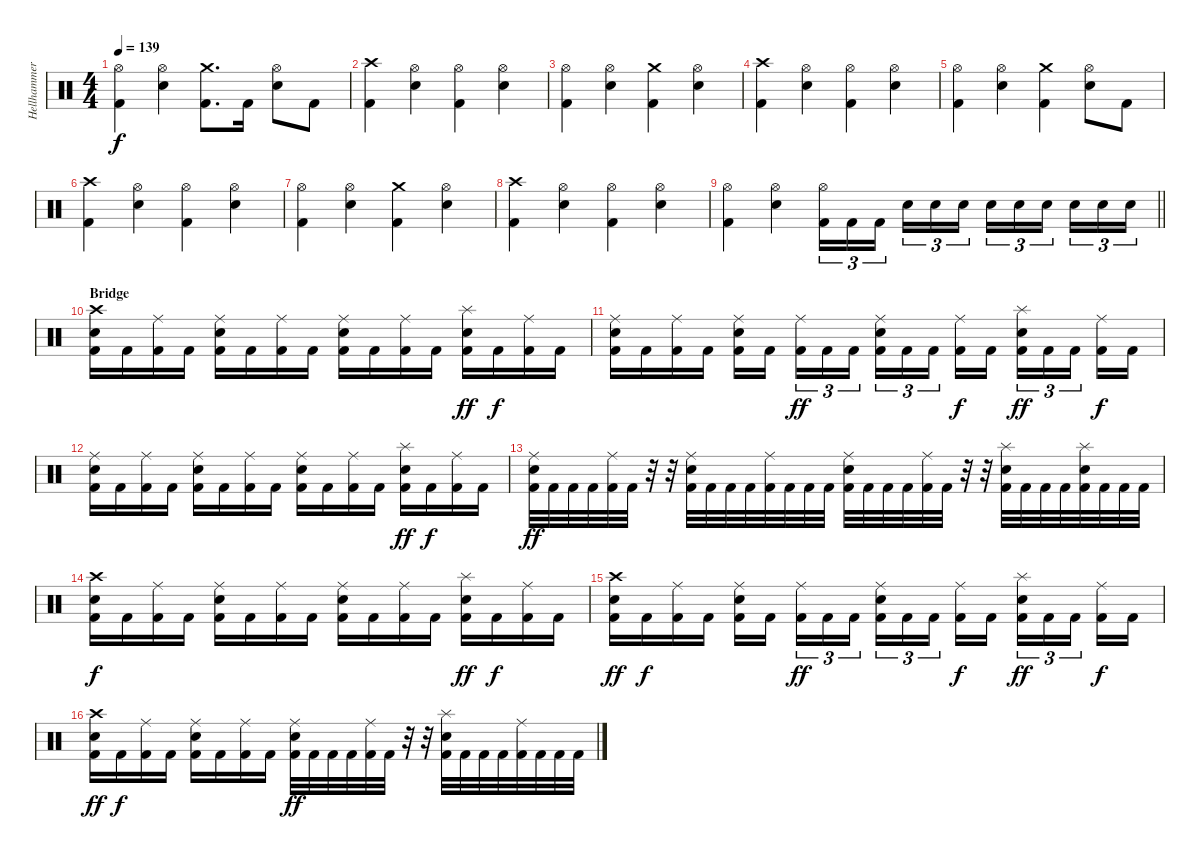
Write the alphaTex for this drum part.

\track ("Hellhammer" "Hellhammer") {instrument percussion}
\staff {score}
\articulation defaults
\ts (4 4)
\tempo 139
\clef neutral
\ks c
("Hi-Hat (open)" "Kick (hit) 2").4{dy f} ("Hi-Hat (open)" "Snare (hit) 2").4 ("Crash medium (hit)" "Kick (hit) 2").8{d} "Kick (hit) 2".16 ("Hi-Hat (open)" "Snare (hit) 2").8 "Kick (hit) 2".8 |
("Crash high (hit)" "Kick (hit) 2").4 ("Hi-Hat (open)" "Snare (hit) 2").4 ("Hi-Hat (open)" "Kick (hit) 2").4 ("Hi-Hat (open)" "Snare (hit) 2").4 |
("Hi-Hat (open)" "Kick (hit) 2").4 ("Hi-Hat (open)" "Snare (hit) 2").4 ("Crash medium (hit)" "Kick (hit) 2").4 ("Hi-Hat (open)" "Snare (hit) 2").4 |
("Crash high (hit)" "Kick (hit) 2").4 ("Hi-Hat (open)" "Snare (hit) 2").4 ("Hi-Hat (open)" "Kick (hit) 2").4 ("Hi-Hat (open)" "Snare (hit) 2").4 |
("Hi-Hat (open)" "Kick (hit) 2").4 ("Hi-Hat (open)" "Snare (hit) 2").4 ("Crash medium (hit)" "Kick (hit) 2").4 ("Hi-Hat (open)" "Snare (hit) 2").8 "Kick (hit) 2".8 |
("Crash high (hit)" "Kick (hit) 2").4 ("Hi-Hat (open)" "Snare (hit) 2").4 ("Hi-Hat (open)" "Kick (hit) 2").4 ("Hi-Hat (open)" "Snare (hit) 2").4 |
("Hi-Hat (open)" "Kick (hit) 2").4 ("Hi-Hat (open)" "Snare (hit) 2").4 ("Crash medium (hit)" "Kick (hit) 2").4 ("Hi-Hat (open)" "Snare (hit) 2").4 |
("Crash high (hit)" "Kick (hit) 2").4 ("Hi-Hat (open)" "Snare (hit) 2").4 ("Hi-Hat (open)" "Kick (hit) 2").4 ("Hi-Hat (open)" "Snare (hit) 2").4 |
\barLineRight lightlight
("Hi-Hat (open)" "Kick (hit) 2").4 ("Hi-Hat (open)" "Snare (hit) 2").4 ("Hi-Hat (open)" "Kick (hit) 2").16{tu (3 2)} "Kick (hit) 2".16{tu (3 2)} "Kick (hit) 2".16{tu (3 2) beam splitsecondary} "Snare (hit) 2".16{tu (3 2)} "Snare (hit) 2".16{tu (3 2)} "Snare (hit) 2".16{tu (3 2)} "Snare (hit) 2".16{tu (3 2)} "Snare (hit) 2".16{tu (3 2)} "Snare (hit) 2".16{tu (3 2) beam splitsecondary} "Snare (hit) 2".16{tu (3 2)} "Snare (hit) 2".16{tu (3 2)} "Snare (hit) 2".16{tu (3 2)} |
\section ("" "Bridge")
("Crash high (hit)" "Snare (hit) 2" "Kick (hit) 2").16 "Kick (hit) 2".16 ("Ride (middle)" "Kick (hit) 2").16 "Kick (hit) 2".16 ("Ride (middle)" "Snare (hit) 2" "Kick (hit) 2").16 "Kick (hit) 2".16 ("Ride (middle)" "Kick (hit) 2").16 "Kick (hit) 2".16 ("Ride (middle)" "Snare (hit) 2" "Kick (hit) 2").16 "Kick (hit) 2".16 ("Ride (middle)" "Kick (hit) 2").16 "Kick (hit) 2".16 ("Splash (hit)" "Snare (hit) 2" "Kick (hit) 2").16{dy ff} "Kick (hit) 2".16{dy f} ("Ride (middle)" "Kick (hit) 2").16 "Kick (hit) 2".16 |
("Ride (middle)" "Snare (hit) 2" "Kick (hit) 2").16 "Kick (hit) 2".16 ("Ride (middle)" "Kick (hit) 2").16 "Kick (hit) 2".16 ("Ride (middle)" "Snare (hit) 2" "Kick (hit) 2").16 "Kick (hit) 2".16{beam splitsecondary} ("Ride (middle)" "Kick (hit) 2").16{tu (3 2) dy ff} "Kick (hit) 2".16{tu (3 2)} "Kick (hit) 2".16{tu (3 2)} ("Ride (middle)" "Snare (hit) 2" "Kick (hit) 2").16{tu (3 2)} "Kick (hit) 2".16{tu (3 2)} "Kick (hit) 2".16{tu (3 2) beam splitsecondary} ("Ride (middle)" "Kick (hit) 2").16{dy f} "Kick (hit) 2".16 ("Splash (hit)" "Snare (hit) 2" "Kick (hit) 2").16{tu (3 2) dy ff} "Kick (hit) 2".16{tu (3 2)} "Kick (hit) 2".16{tu (3 2) beam splitsecondary} ("Ride (middle)" "Kick (hit) 2").16{dy f} "Kick (hit) 2".16 |
("Ride (middle)" "Snare (hit) 2" "Kick (hit) 2").16 "Kick (hit) 2".16 ("Ride (middle)" "Kick (hit) 2").16 "Kick (hit) 2".16 ("Ride (middle)" "Snare (hit) 2" "Kick (hit) 2").16 "Kick (hit) 2".16 ("Ride (middle)" "Kick (hit) 2").16 "Kick (hit) 2".16 ("Ride (middle)" "Snare (hit) 2" "Kick (hit) 2").16 "Kick (hit) 2".16 ("Ride (middle)" "Kick (hit) 2").16 "Kick (hit) 2".16 ("Splash (hit)" "Snare (hit) 2" "Kick (hit) 2").16{dy ff} "Kick (hit) 2".16{dy f} ("Ride (middle)" "Kick (hit) 2").16 "Kick (hit) 2".16 |
("Ride (middle)" "Snare (hit) 2" "Kick (hit) 2").32{dy ff} "Kick (hit) 2".32 "Kick (hit) 2".32 "Kick (hit) 2".32 ("Ride (middle)" "Kick (hit) 2").32 "Kick (hit) 2".32 r.32 r.32 ("Ride (middle)" "Snare (hit) 2" "Kick (hit) 2").32 "Kick (hit) 2".32 "Kick (hit) 2".32 "Kick (hit) 2".32 ("Ride (middle)" "Kick (hit) 2").32 "Kick (hit) 2".32 "Kick (hit) 2".32 "Kick (hit) 2".32 ("Ride (middle)" "Snare (hit) 2" "Kick (hit) 2").32 "Kick (hit) 2".32 "Kick (hit) 2".32 "Kick (hit) 2".32 ("Ride (middle)" "Kick (hit) 2").32 "Kick (hit) 2".32 r.32 r.32 ("Splash (hit)" "Snare (hit) 2" "Kick (hit) 2").32 "Kick (hit) 2".32 "Kick (hit) 2".32 "Kick (hit) 2".32 ("Splash (hit)" "Snare (hit) 2" "Kick (hit) 2").32 "Kick (hit) 2".32 "Kick (hit) 2".32 "Kick (hit) 2".32 |
("Crash high (hit)" "Snare (hit) 2" "Kick (hit) 2").16{dy f} "Kick (hit) 2".16 ("Ride (middle)" "Kick (hit) 2").16 "Kick (hit) 2".16 ("Ride (middle)" "Snare (hit) 2" "Kick (hit) 2").16 "Kick (hit) 2".16 ("Ride (middle)" "Kick (hit) 2").16 "Kick (hit) 2".16 ("Ride (middle)" "Snare (hit) 2" "Kick (hit) 2").16 "Kick (hit) 2".16 ("Ride (middle)" "Kick (hit) 2").16 "Kick (hit) 2".16 ("Splash (hit)" "Snare (hit) 2" "Kick (hit) 2").16{dy ff} "Kick (hit) 2".16{dy f} ("Ride (middle)" "Kick (hit) 2").16 "Kick (hit) 2".16 |
("Crash high (hit)" "Snare (hit) 2" "Kick (hit) 2").16{dy ff} "Kick (hit) 2".16{dy f} ("Ride (middle)" "Kick (hit) 2").16 "Kick (hit) 2".16 ("Ride (middle)" "Snare (hit) 2" "Kick (hit) 2").16 "Kick (hit) 2".16{beam splitsecondary} ("Ride (middle)" "Kick (hit) 2").16{tu (3 2) dy ff} "Kick (hit) 2".16{tu (3 2)} "Kick (hit) 2".16{tu (3 2)} ("Ride (middle)" "Snare (hit) 2" "Kick (hit) 2").16{tu (3 2)} "Kick (hit) 2".16{tu (3 2)} "Kick (hit) 2".16{tu (3 2) beam splitsecondary} ("Ride (middle)" "Kick (hit) 2").16{dy f} "Kick (hit) 2".16 ("Splash (hit)" "Snare (hit) 2" "Kick (hit) 2").16{tu (3 2) dy ff} "Kick (hit) 2".16{tu (3 2)} "Kick (hit) 2".16{tu (3 2) beam splitsecondary} ("Ride (middle)" "Kick (hit) 2").16{dy f} "Kick (hit) 2".16 |
("Crash high (hit)" "Snare (hit) 2" "Kick (hit) 2").16{dy ff} "Kick (hit) 2".16{dy f} ("Ride (middle)" "Kick (hit) 2").16 "Kick (hit) 2".16 ("Ride (middle)" "Snare (hit) 2" "Kick (hit) 2").16 "Kick (hit) 2".16 ("Ride (middle)" "Kick (hit) 2").16 "Kick (hit) 2".16 ("Ride (middle)" "Snare (hit) 2" "Kick (hit) 2").32{dy ff} "Kick (hit) 2".32 "Kick (hit) 2".32 "Kick (hit) 2".32 ("Ride (middle)" "Kick (hit) 2").32 "Kick (hit) 2".32 r.32 r.32 ("Splash (hit)" "Snare (hit) 2" "Kick (hit) 2").32 "Kick (hit) 2".32 "Kick (hit) 2".32 "Kick (hit) 2".32 ("Ride (middle)" "Kick (hit) 2").32 "Kick (hit) 2".32 "Kick (hit) 2".32 "Kick (hit) 2".32
